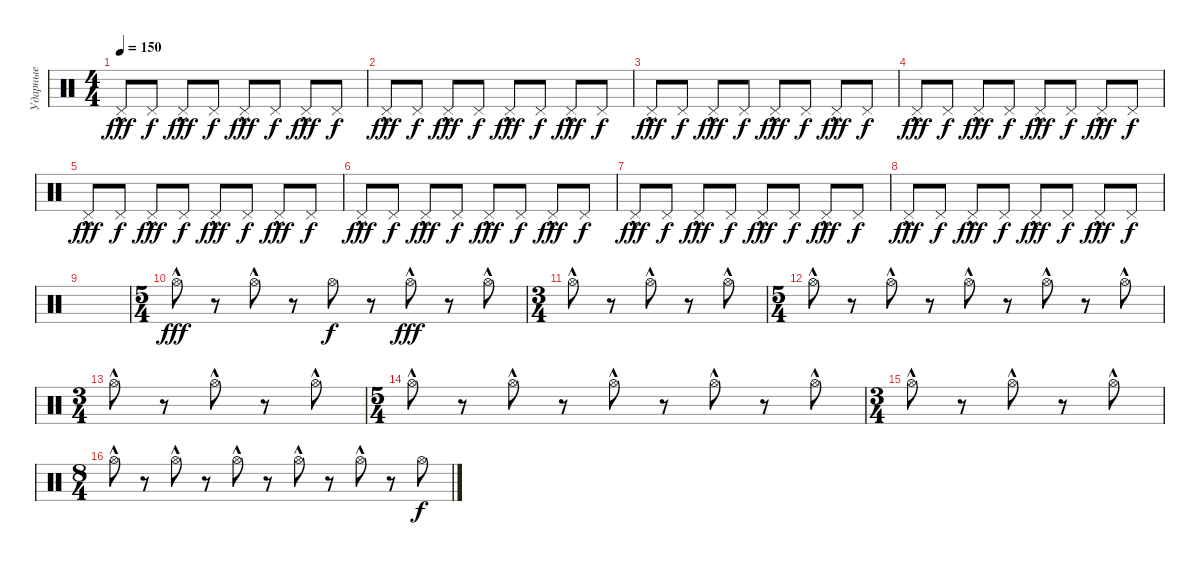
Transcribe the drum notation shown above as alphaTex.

\track ("Ударные" "Ударные") {instrument percussion}
\staff {score}
\articulation defaults
\ts (4 4)
\tempo 150
\clef neutral
\ks c "Pedal Hi-Hat (hit)"{hac}.8{dy fff} "Pedal Hi-Hat (hit)".8{dy f} "Pedal Hi-Hat (hit)"{hac}.8{dy fff} "Pedal Hi-Hat (hit)".8{dy f} "Pedal Hi-Hat (hit)"{hac}.8{dy fff} "Pedal Hi-Hat (hit)".8{dy f} "Pedal Hi-Hat (hit)"{hac}.8{dy fff} "Pedal Hi-Hat (hit)".8{dy f}
|
"Pedal Hi-Hat (hit)"{hac}.8{dy fff} "Pedal Hi-Hat (hit)".8{dy f} "Pedal Hi-Hat (hit)"{hac}.8{dy fff} "Pedal Hi-Hat (hit)".8{dy f} "Pedal Hi-Hat (hit)"{hac}.8{dy fff} "Pedal Hi-Hat (hit)".8{dy f} "Pedal Hi-Hat (hit)"{hac}.8{dy fff} "Pedal Hi-Hat (hit)".8{dy f} |
"Pedal Hi-Hat (hit)"{hac}.8{dy fff} "Pedal Hi-Hat (hit)".8{dy f} "Pedal Hi-Hat (hit)"{hac}.8{dy fff} "Pedal Hi-Hat (hit)".8{dy f} "Pedal Hi-Hat (hit)"{hac}.8{dy fff} "Pedal Hi-Hat (hit)".8{dy f} "Pedal Hi-Hat (hit)"{hac}.8{dy fff} "Pedal Hi-Hat (hit)".8{dy f} |
"Pedal Hi-Hat (hit)"{hac}.8{dy fff} "Pedal Hi-Hat (hit)".8{dy f} "Pedal Hi-Hat (hit)"{hac}.8{dy fff} "Pedal Hi-Hat (hit)".8{dy f} "Pedal Hi-Hat (hit)"{hac}.8{dy fff} "Pedal Hi-Hat (hit)".8{dy f} "Pedal Hi-Hat (hit)"{hac}.8{dy fff} "Pedal Hi-Hat (hit)".8{dy f} |
"Pedal Hi-Hat (hit)"{hac}.8{dy fff} "Pedal Hi-Hat (hit)".8{dy f} "Pedal Hi-Hat (hit)"{hac}.8{dy fff} "Pedal Hi-Hat (hit)".8{dy f} "Pedal Hi-Hat (hit)"{hac}.8{dy fff} "Pedal Hi-Hat (hit)".8{dy f} "Pedal Hi-Hat (hit)"{hac}.8{dy fff} "Pedal Hi-Hat (hit)".8{dy f} |
"Pedal Hi-Hat (hit)"{hac}.8{dy fff} "Pedal Hi-Hat (hit)".8{dy f} "Pedal Hi-Hat (hit)"{hac}.8{dy fff} "Pedal Hi-Hat (hit)".8{dy f} "Pedal Hi-Hat (hit)"{hac}.8{dy fff} "Pedal Hi-Hat (hit)".8{dy f} "Pedal Hi-Hat (hit)"{hac}.8{dy fff} "Pedal Hi-Hat (hit)".8{dy f} |
"Pedal Hi-Hat (hit)"{hac}.8{dy fff} "Pedal Hi-Hat (hit)".8{dy f} "Pedal Hi-Hat (hit)"{hac}.8{dy fff} "Pedal Hi-Hat (hit)".8{dy f} "Pedal Hi-Hat (hit)"{hac}.8{dy fff} "Pedal Hi-Hat (hit)".8{dy f} "Pedal Hi-Hat (hit)"{hac}.8{dy fff} "Pedal Hi-Hat (hit)".8{dy f} |
"Pedal Hi-Hat (hit)"{hac}.8{dy fff} "Pedal Hi-Hat (hit)".8{dy f} "Pedal Hi-Hat (hit)"{hac}.8{dy fff} "Pedal Hi-Hat (hit)".8{dy f} "Pedal Hi-Hat (hit)"{hac}.8{dy fff} "Pedal Hi-Hat (hit)".8{dy f} "Pedal Hi-Hat (hit)"{hac}.8{dy fff} "Pedal Hi-Hat (hit)".8{dy f} |
|
\ts (5 4)
"Hi-Hat (open)"{hac}.8{dy fff} r.8 "Hi-Hat (open)"{hac}.8 r.8 "Hi-Hat (open)".8{dy f} r.8 "Hi-Hat (open)"{hac}.8{dy fff} r.8 "Hi-Hat (open)"{hac}.8 |
\ts (3 4)
"Hi-Hat (open)"{hac}.8 r.8 "Hi-Hat (open)"{hac}.8 r.8 "Hi-Hat (open)"{hac}.8 |
\ts (5 4)
"Hi-Hat (open)"{hac}.8 r.8 "Hi-Hat (open)"{hac}.8 r.8 "Hi-Hat (open)"{hac}.8 r.8 "Hi-Hat (open)"{hac}.8 r.8 "Hi-Hat (open)"{hac}.8 |
\ts (3 4)
"Hi-Hat (open)"{hac}.8 r.8 "Hi-Hat (open)"{hac}.8 r.8 "Hi-Hat (open)"{hac}.8 |
\ts (5 4)
"Hi-Hat (open)"{hac}.8 r.8 "Hi-Hat (open)"{hac}.8 r.8 "Hi-Hat (open)"{hac}.8 r.8 "Hi-Hat (open)"{hac}.8 r.8 "Hi-Hat (open)"{hac}.8 |
\ts (3 4)
"Hi-Hat (open)"{hac}.8 r.8 "Hi-Hat (open)"{hac}.8 r.8 "Hi-Hat (open)"{hac}.8 |
\ts (8 4)
"Hi-Hat (open)"{hac}.8 r.8 "Hi-Hat (open)"{hac}.8 r.8 "Hi-Hat (open)"{hac}.8 r.8 "Hi-Hat (open)"{hac}.8 r.8 "Hi-Hat (open)"{hac}.8 r.8 "Hi-Hat (open)".8{dy f}
